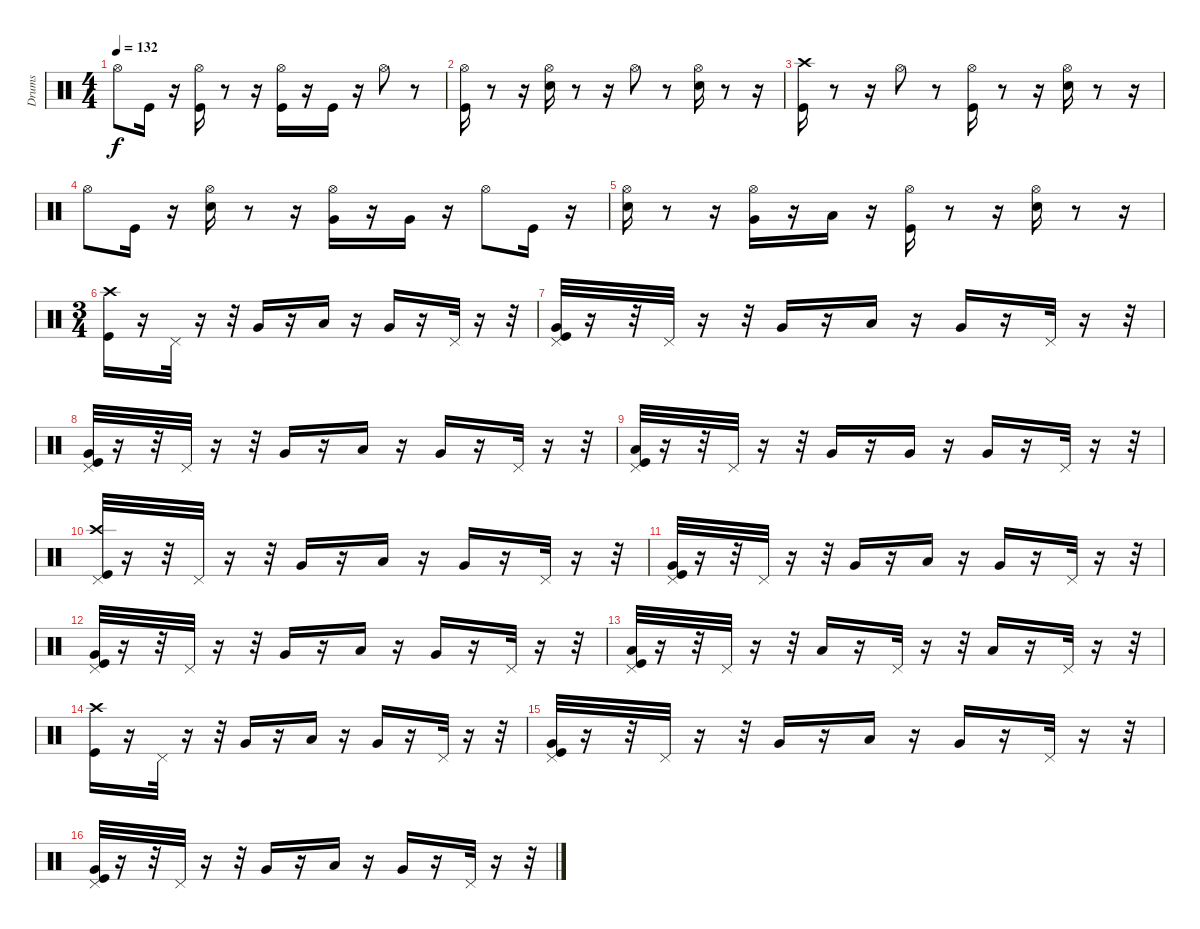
\track ("Drums" "Drums") {instrument percussion}
\staff {score}
\articulation defaults
\ts (4 4)
\tempo 132
\clef neutral
\ks c "Hi-Hat (open)".8{dy f} "Kick (hit)".16
r.16 ("Hi-Hat (open)" "Kick (hit)").16 r.8 r.16 ("Kick (hit)" "Hi-Hat (open)").16 r.16 "Kick (hit)".16 r.16 "Hi-Hat (open)".8 r.8 |
("Hi-Hat (open)" "Kick (hit)").16 r.8 r.16 ("Hi-Hat (open)" "Snare (hit) 2").16 r.8 r.16 "Hi-Hat (open)".8 r.8 ("Hi-Hat (open)" "Snare (hit) 2").16 r.8 r.16 |
("Kick (hit)" "Crash high (hit)").16 r.8 r.16 "Hi-Hat (open)".8 r.8 ("Kick (hit)" "Hi-Hat (open)").16 r.8 r.16 ("Hi-Hat (open)" "Snare (hit) 2").16 r.8 r.16 |
"Hi-Hat (open)".8 "Kick (hit)".16 r.16 ("Hi-Hat (open)" "Snare (hit) 2").16 r.8 r.16 ("Hi-Hat (open)" "Very Low Tom (hit)").16 r.16 "Very Low Tom (hit)".16 r.16 "Hi-Hat (open)".8 "Kick (hit)".16 r.16 |
("Hi-Hat (open)" "Snare (hit) 2").16 r.8 r.16 ("Hi-Hat (open)" "Very Low Tom (hit)").16 r.16 "Low Floor Tom (hit)".16 r.16 ("Hi-Hat (open)" "Kick (hit)").16 r.8 r.16 ("Hi-Hat (open)" "Snare (hit) 2").16 r.8 r.16 |
\ts (3 4)
("Crash high (hit)" "Kick (hit)").16 r.16 "Pedal Hi-Hat (hit)".32 r.16 r.32 "Very Low Tom (hit)".16 r.16 "Low Tom (hit)".16 r.16 "Very Low Tom (hit)".16 r.16 "Pedal Hi-Hat (hit)".32 r.16 r.32 |
("Kick (hit)" "Pedal Hi-Hat (hit)" "Very Low Tom (hit)").32 r.16 r.32 "Pedal Hi-Hat (hit)".32 r.16 r.32 "Very Low Tom (hit)".16 r.16 "Low Tom (hit)".16 r.16 "Very Low Tom (hit)".16 r.16 "Pedal Hi-Hat (hit)".32 r.16 r.32 |
("Kick (hit)" "Pedal Hi-Hat (hit)" "Very Low Tom (hit)").32 r.16 r.32 "Pedal Hi-Hat (hit)".32 r.16 r.32 "Very Low Tom (hit)".16 r.16 "Low Tom (hit)".16 r.16 "Very Low Tom (hit)".16 r.16 "Pedal Hi-Hat (hit)".32 r.16 r.32 |
("Kick (hit)" "Low Tom (hit)" "Pedal Hi-Hat (hit)").32 r.16 r.32 "Pedal Hi-Hat (hit)".32 r.16 r.32 "Very Low Tom (hit)".16 r.16 "Very Low Tom (hit)".16 r.16 "Very Low Tom (hit)".16 r.16 "Pedal Hi-Hat (hit)".32 r.16 r.32 |
("Kick (hit)" "Crash high (hit)" "Pedal Hi-Hat (hit)").32 r.16 r.32 "Pedal Hi-Hat (hit)".32 r.16 r.32 "Very Low Tom (hit)".16 r.16 "Low Tom (hit)".16 r.16 "Very Low Tom (hit)".16 r.16 "Pedal Hi-Hat (hit)".32 r.16 r.32 |
("Kick (hit)" "Pedal Hi-Hat (hit)" "Very Low Tom (hit)").32 r.16 r.32 "Pedal Hi-Hat (hit)".32 r.16 r.32 "Very Low Tom (hit)".16 r.16 "Low Tom (hit)".16 r.16 "Very Low Tom (hit)".16 r.16 "Pedal Hi-Hat (hit)".32 r.16 r.32 |
("Kick (hit)" "Pedal Hi-Hat (hit)" "Very Low Tom (hit)").32 r.16 r.32 "Pedal Hi-Hat (hit)".32 r.16 r.32 "Very Low Tom (hit)".16 r.16 "Low Tom (hit)".16 r.16 "Very Low Tom (hit)".16 r.16 "Pedal Hi-Hat (hit)".32 r.16 r.32 |
("Kick (hit)" "Low Tom (hit)" "Pedal Hi-Hat (hit)").32 r.16 r.32 "Pedal Hi-Hat (hit)".32 r.16 r.32 "Low Floor Tom (hit)".16 r.16 "Pedal Hi-Hat (hit)".32 r.16 r.32 "Low Floor Tom (hit)".16 r.16 "Pedal Hi-Hat (hit)".32 r.16 r.32 |
("Crash high (hit)" "Kick (hit)").16 r.16 "Pedal Hi-Hat (hit)".32 r.16 r.32 "Very Low Tom (hit)".16 r.16 "Low Tom (hit)".16 r.16 "Very Low Tom (hit)".16 r.16 "Pedal Hi-Hat (hit)".32 r.16 r.32 |
("Kick (hit)" "Pedal Hi-Hat (hit)" "Very Low Tom (hit)").32 r.16 r.32 "Pedal Hi-Hat (hit)".32 r.16 r.32 "Very Low Tom (hit)".16 r.16 "Low Tom (hit)".16 r.16 "Very Low Tom (hit)".16 r.16 "Pedal Hi-Hat (hit)".32 r.16 r.32 |
("Kick (hit)" "Pedal Hi-Hat (hit)" "Very Low Tom (hit)").32 r.16 r.32 "Pedal Hi-Hat (hit)".32 r.16 r.32 "Very Low Tom (hit)".16 r.16 "Low Tom (hit)".16 r.16 "Very Low Tom (hit)".16 r.16 "Pedal Hi-Hat (hit)".32 r.16 r.32
